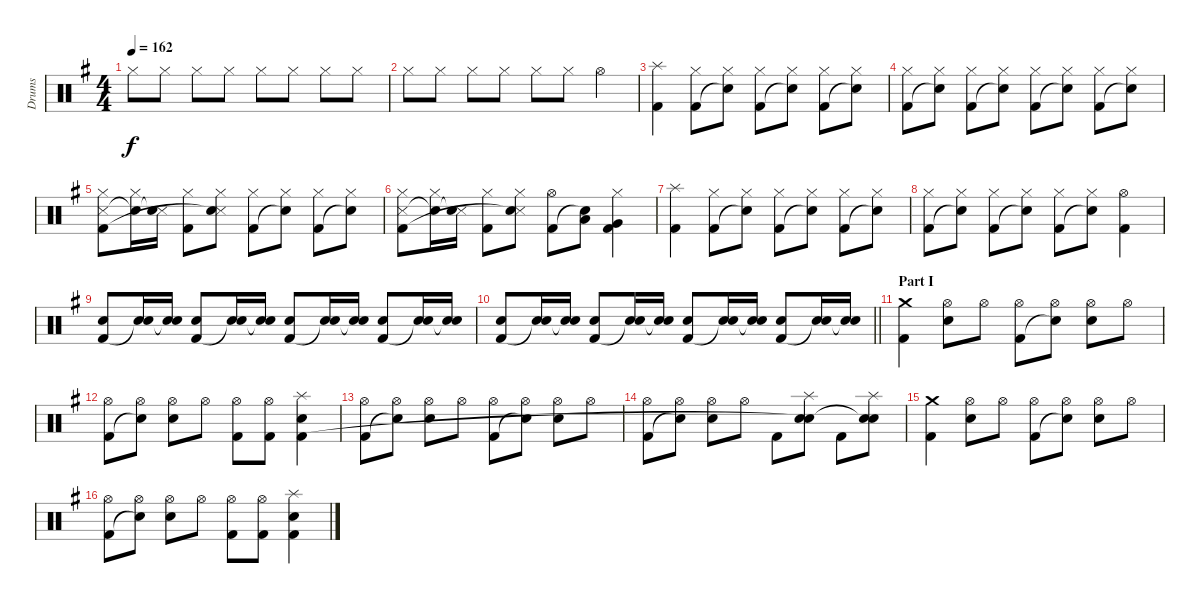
\track ("Drums" "Drums") {instrument percussion}
\staff {score}
\articulation defaults
\ts (4 4)
\tempo 162
\clef neutral
\ks g "Hi-Hat (closed)".8{dy f} "Hi-Hat (closed)".8 "Hi-Hat (closed)".8 "Hi-Hat (closed)".8 "Hi-Hat (closed)".8 "Hi-Hat (closed)".8 "Hi-Hat (closed)".8 "Hi-Hat (closed)".8
|
"Hi-Hat (closed)".8 "Hi-Hat (closed)".8 "Hi-Hat (closed)".8 "Hi-Hat (closed)".8 "Hi-Hat (closed)".8 "Hi-Hat (closed)".8 "Hi-Hat (open)".4 |
("Splash (hit)" "Kick (hit) 2").4 ("Hi-Hat (closed)" "Kick (hit) 2").8 ("Hi-Hat (closed)" "Snare (hit)"{t}).8 ("Hi-Hat (closed)" "Kick (hit) 2").8 ("Hi-Hat (closed)" "Snare (hit)"{t}).8 ("Hi-Hat (closed)" "Kick (hit) 2").8 ("Hi-Hat (closed)" "Snare (hit)"{t}).8 |
("Hi-Hat (closed)" "Kick (hit) 2").8 ("Hi-Hat (closed)" "Snare (hit)"{t}).8 ("Hi-Hat (closed)" "Kick (hit) 2").8 ("Hi-Hat (closed)" "Snare (hit)"{t}).8 ("Hi-Hat (closed)" "Kick (hit) 2").8 ("Hi-Hat (closed)" "Snare (hit)"{t}).8 ("Hi-Hat (closed)" "Kick (hit) 2").8 ("Hi-Hat (closed)" "Snare (hit)"{t}).8 |
("Hi-Hat (closed)" "Snare (side stick) 3" "Kick (hit) 2").8 ("Hi-Hat (closed)" "Snare (hit)"{t}).16 ("Snare (side stick) 3" "Snare (hit)"{t}).16 ("Hi-Hat (closed)" "Kick (hit) 2").8 ("Hi-Hat (closed)" "Snare (side stick) 3" "Snare (hit)"{t}).8 ("Hi-Hat (closed)" "Kick (hit) 2").8 ("Hi-Hat (closed)" "Snare (hit)"{t}).8 ("Hi-Hat (closed)" "Kick (hit) 2").8 ("Hi-Hat (closed)" "Snare (hit)"{t}).8 |
("Hi-Hat (closed)" "Snare (side stick) 3" "Kick (hit) 2").8 ("Hi-Hat (closed)" "Snare (hit)"{t}).16 ("Snare (side stick) 3" "Snare (hit)"{t}).16 ("Hi-Hat (closed)" "Kick (hit) 2").8 ("Hi-Hat (closed)" "Snare (side stick) 3" "Snare (hit)"{t}).8 ("Hi-Hat (open)" "Kick (hit) 2").8 ("Low Tom (hit)" "Snare (hit)"{t}).8 ("Hi-Hat (closed)" "Very Low Tom (hit)" "Kick (hit) 2").4 |
("Splash (hit)" "Kick (hit) 2").4 ("Hi-Hat (closed)" "Kick (hit) 2").8 ("Hi-Hat (closed)" "Snare (hit)"{t}).8 ("Hi-Hat (closed)" "Kick (hit) 2").8 ("Hi-Hat (closed)" "Snare (hit)"{t}).8 ("Hi-Hat (closed)" "Kick (hit) 2").8 ("Hi-Hat (closed)" "Snare (hit)"{t}).8 |
("Hi-Hat (closed)" "Kick (hit) 2").8 ("Hi-Hat (closed)" "Snare (hit)"{t}).8 ("Hi-Hat (closed)" "Kick (hit) 2").8 ("Hi-Hat (closed)" "Snare (hit)"{t}).8 ("Hi-Hat (closed)" "Kick (hit) 2").8 ("Hi-Hat (closed)" "Snare (hit)"{t}).8 ("Hi-Hat (open)" "Kick (hit) 2").4 |
("Electric Snare (hit)" "Kick (hit) 2").8 ("Electric Snare (hit)" "Snare (hit)"{t}).16 ("Electric Snare (hit)" "Snare (hit)"{t}).16 ("Electric Snare (hit)" "Kick (hit) 2").8 ("Electric Snare (hit)" "Snare (hit)"{t}).16 ("Electric Snare (hit)" "Snare (hit)"{t}).16 ("Electric Snare (hit)" "Kick (hit) 2").8 ("Electric Snare (hit)" "Snare (hit)"{t}).16 ("Electric Snare (hit)" "Snare (hit)"{t}).16 ("Electric Snare (hit)" "Kick (hit) 2").8 ("Electric Snare (hit)" "Snare (hit)"{t}).16 ("Electric Snare (hit)" "Snare (hit)"{t}).16 |
\barLineRight lightlight
("Electric Snare (hit)" "Kick (hit) 2").8 ("Electric Snare (hit)" "Snare (hit)"{t}).16 ("Electric Snare (hit)" "Snare (hit)"{t}).16 ("Electric Snare (hit)" "Kick (hit) 2").8 ("Electric Snare (hit)" "Snare (hit)"{t}).16 ("Electric Snare (hit)" "Snare (hit)"{t}).16 ("Electric Snare (hit)" "Kick (hit) 2").8 ("Electric Snare (hit)" "Snare (hit)"{t}).16 ("Electric Snare (hit)" "Snare (hit)"{t}).16 ("Electric Snare (hit)" "Kick (hit) 2").8 ("Electric Snare (hit)" "Snare (hit)"{t}).16 ("Electric Snare (hit)" "Snare (hit)"{t}).16 |
\section ("" "Part I")
("Crash medium (hit)" "Kick (hit) 2").4 ("Hi-Hat (open)" "Electric Snare (hit)").8 "Hi-Hat (open)".8 ("Hi-Hat (open)" "Kick (hit) 2").8 ("Hi-Hat (open)" "Snare (hit)"{t}).8 ("Hi-Hat (open)" "Electric Snare (hit)").8 "Hi-Hat (open)".8 |
("Hi-Hat (open)" "Kick (hit) 2").8 ("Hi-Hat (open)" "Snare (hit)"{t}).8 ("Hi-Hat (open)" "Electric Snare (hit)").8 "Hi-Hat (open)".8 ("Hi-Hat (open)" "Kick (hit) 2").8 ("Hi-Hat (open)" "Kick (hit) 2").8 ("Splash (hit)" "Electric Snare (hit)" "Kick (hit) 2").4 |
("Hi-Hat (open)" "Kick (hit) 2").8 ("Hi-Hat (open)" "Snare (hit)"{t}).8 ("Hi-Hat (open)" "Electric Snare (hit)").8 "Hi-Hat (open)".8 ("Hi-Hat (open)" "Kick (hit) 2").8 ("Hi-Hat (open)" "Snare (hit)"{t}).8 ("Hi-Hat (open)" "Electric Snare (hit)").8 "Hi-Hat (open)".8 |
("Hi-Hat (open)" "Kick (hit) 2").8 ("Hi-Hat (open)" "Snare (hit)"{t}).8 ("Hi-Hat (open)" "Electric Snare (hit)").8 "Hi-Hat (open)".8 "Kick (hit) 2".8 ("Splash (hit)" "Electric Snare (hit)" "Snare (hit)"{t}).8 "Kick (hit) 2".8 ("Splash (hit)" "Electric Snare (hit)" "Snare (hit)"{t}).8 |
("Crash medium (hit)" "Kick (hit) 2").4 ("Hi-Hat (open)" "Electric Snare (hit)").8 "Hi-Hat (open)".8 ("Hi-Hat (open)" "Kick (hit) 2").8 ("Hi-Hat (open)" "Snare (hit)"{t}).8 ("Hi-Hat (open)" "Electric Snare (hit)").8 "Hi-Hat (open)".8 |
("Hi-Hat (open)" "Kick (hit) 2").8 ("Hi-Hat (open)" "Snare (hit)"{t}).8 ("Hi-Hat (open)" "Electric Snare (hit)").8 "Hi-Hat (open)".8 ("Hi-Hat (open)" "Kick (hit) 2").8 ("Hi-Hat (open)" "Kick (hit) 2").8 ("Splash (hit)" "Electric Snare (hit)" "Kick (hit) 2").4
